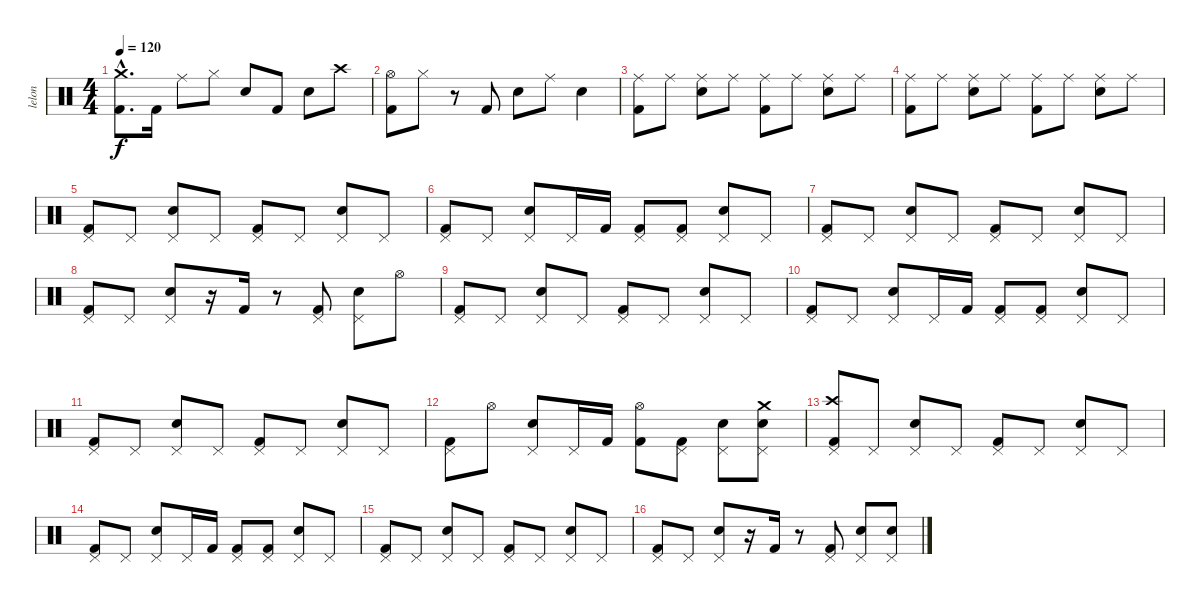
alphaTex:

\track ("lelon" "lelon") {instrument percussion}
\staff {score}
\articulation defaults
\ts (4 4)
\tempo 120
\clef neutral
\ks c
("Crash medium (hit)"{hac} "Kick (hit) 2"{hac}).8{d dy f} "Kick (hit) 2".16 "Ride (middle)".8 "Hi-Hat (closed)".8 "Electric Snare (hit)".8 "Kick (hit) 2".8 "Electric Snare (hit)".8 "Crash high (hit)".8 |
("Hi-Hat (open)" "Kick (hit) 2").8 "Hi-Hat (closed)".8 r.8 "Kick (hit) 2".8 "Electric Snare (hit)".8 "Ride (middle)".8 "Electric Snare (hit)".4 |
("Ride (middle)" "Kick (hit) 2").8 "Ride (middle)".8 ("Ride (middle)" "Electric Snare (hit)").8 "Ride (middle)".8 ("Ride (middle)" "Kick (hit) 2").8 "Ride (middle)".8 ("Ride (middle)" "Electric Snare (hit)").8 "Ride (middle)".8 |
("Ride (middle)" "Kick (hit) 2").8 "Ride (middle)".8 ("Ride (middle)" "Electric Snare (hit)").8 "Ride (middle)".8 ("Ride (middle)" "Kick (hit) 2").8 "Ride (middle)".8 ("Ride (middle)" "Electric Snare (hit)").8 "Ride (middle)".8 |
("Pedal Hi-Hat (hit)" "Kick (hit) 2").8 "Pedal Hi-Hat (hit)".8 ("Pedal Hi-Hat (hit)" "Electric Snare (hit)").8 "Pedal Hi-Hat (hit)".8 ("Pedal Hi-Hat (hit)" "Kick (hit) 2").8 "Pedal Hi-Hat (hit)".8 ("Pedal Hi-Hat (hit)" "Electric Snare (hit)").8 "Pedal Hi-Hat (hit)".8 |
("Pedal Hi-Hat (hit)" "Kick (hit) 2").8 "Pedal Hi-Hat (hit)".8 ("Pedal Hi-Hat (hit)" "Electric Snare (hit)").8 "Pedal Hi-Hat (hit)".16 "Kick (hit) 2".16 ("Pedal Hi-Hat (hit)" "Kick (hit) 2").8 ("Pedal Hi-Hat (hit)" "Kick (hit) 2").8 ("Pedal Hi-Hat (hit)" "Electric Snare (hit)").8 "Pedal Hi-Hat (hit)".8 |
("Pedal Hi-Hat (hit)" "Kick (hit) 2").8 "Pedal Hi-Hat (hit)".8 ("Pedal Hi-Hat (hit)" "Electric Snare (hit)").8 "Pedal Hi-Hat (hit)".8 ("Pedal Hi-Hat (hit)" "Kick (hit) 2").8 "Pedal Hi-Hat (hit)".8 ("Pedal Hi-Hat (hit)" "Electric Snare (hit)").8 "Pedal Hi-Hat (hit)".8 |
("Pedal Hi-Hat (hit)" "Kick (hit) 2").8 "Pedal Hi-Hat (hit)".8 ("Pedal Hi-Hat (hit)" "Electric Snare (hit)").8 r.16 "Kick (hit) 2".16 r.8 ("Pedal Hi-Hat (hit)" "Kick (hit) 2").8 ("Pedal Hi-Hat (hit)" "Electric Snare (hit)").8 "Hi-Hat (open)".8 |
("Pedal Hi-Hat (hit)" "Kick (hit) 2").8 "Pedal Hi-Hat (hit)".8 ("Pedal Hi-Hat (hit)" "Electric Snare (hit)").8 "Pedal Hi-Hat (hit)".8 ("Pedal Hi-Hat (hit)" "Kick (hit) 2").8 "Pedal Hi-Hat (hit)".8 ("Pedal Hi-Hat (hit)" "Electric Snare (hit)").8 "Pedal Hi-Hat (hit)".8 |
("Pedal Hi-Hat (hit)" "Kick (hit) 2").8 "Pedal Hi-Hat (hit)".8 ("Pedal Hi-Hat (hit)" "Electric Snare (hit)").8 "Pedal Hi-Hat (hit)".16 "Kick (hit) 2".16 ("Pedal Hi-Hat (hit)" "Kick (hit) 2").8 ("Pedal Hi-Hat (hit)" "Kick (hit) 2").8 ("Pedal Hi-Hat (hit)" "Electric Snare (hit)").8 "Pedal Hi-Hat (hit)".8 |
("Pedal Hi-Hat (hit)" "Kick (hit) 2").8 "Pedal Hi-Hat (hit)".8 ("Pedal Hi-Hat (hit)" "Electric Snare (hit)").8 "Pedal Hi-Hat (hit)".8 ("Pedal Hi-Hat (hit)" "Kick (hit) 2").8 "Pedal Hi-Hat (hit)".8 ("Pedal Hi-Hat (hit)" "Electric Snare (hit)").8 "Pedal Hi-Hat (hit)".8 |
("Pedal Hi-Hat (hit)" "Kick (hit) 2").8 "Hi-Hat (open)".8 ("Pedal Hi-Hat (hit)" "Electric Snare (hit)").8 "Pedal Hi-Hat (hit)".16 "Kick (hit) 2".16 ("Hi-Hat (open)" "Kick (hit) 2").8 ("Pedal Hi-Hat (hit)" "Kick (hit) 2").8 ("Pedal Hi-Hat (hit)" "Electric Snare (hit)").8 ("Crash medium (hit)" "Pedal Hi-Hat (hit)" "Electric Snare (hit)").8 |
("Crash high (hit)" "Pedal Hi-Hat (hit)" "Kick (hit) 2").8 "Pedal Hi-Hat (hit)".8 ("Pedal Hi-Hat (hit)" "Electric Snare (hit)").8 "Pedal Hi-Hat (hit)".8 ("Pedal Hi-Hat (hit)" "Kick (hit) 2").8 "Pedal Hi-Hat (hit)".8 ("Pedal Hi-Hat (hit)" "Electric Snare (hit)").8 "Pedal Hi-Hat (hit)".8 |
("Pedal Hi-Hat (hit)" "Kick (hit) 2").8 "Pedal Hi-Hat (hit)".8 ("Pedal Hi-Hat (hit)" "Electric Snare (hit)").8 "Pedal Hi-Hat (hit)".16 "Kick (hit) 2".16 ("Pedal Hi-Hat (hit)" "Kick (hit) 2").8 ("Pedal Hi-Hat (hit)" "Kick (hit) 2").8 ("Pedal Hi-Hat (hit)" "Electric Snare (hit)").8 "Pedal Hi-Hat (hit)".8 |
("Pedal Hi-Hat (hit)" "Kick (hit) 2").8 "Pedal Hi-Hat (hit)".8 ("Pedal Hi-Hat (hit)" "Electric Snare (hit)").8 "Pedal Hi-Hat (hit)".8 ("Pedal Hi-Hat (hit)" "Kick (hit) 2").8 "Pedal Hi-Hat (hit)".8 ("Pedal Hi-Hat (hit)" "Electric Snare (hit)").8 "Pedal Hi-Hat (hit)".8 |
("Pedal Hi-Hat (hit)" "Kick (hit) 2").8 "Pedal Hi-Hat (hit)".8 ("Pedal Hi-Hat (hit)" "Electric Snare (hit)").8 r.16 "Kick (hit) 2".16 r.8 ("Pedal Hi-Hat (hit)" "Kick (hit) 2").8 ("Pedal Hi-Hat (hit)" "Electric Snare (hit)").8 ("Pedal Hi-Hat (hit)" "Electric Snare (hit)").8
